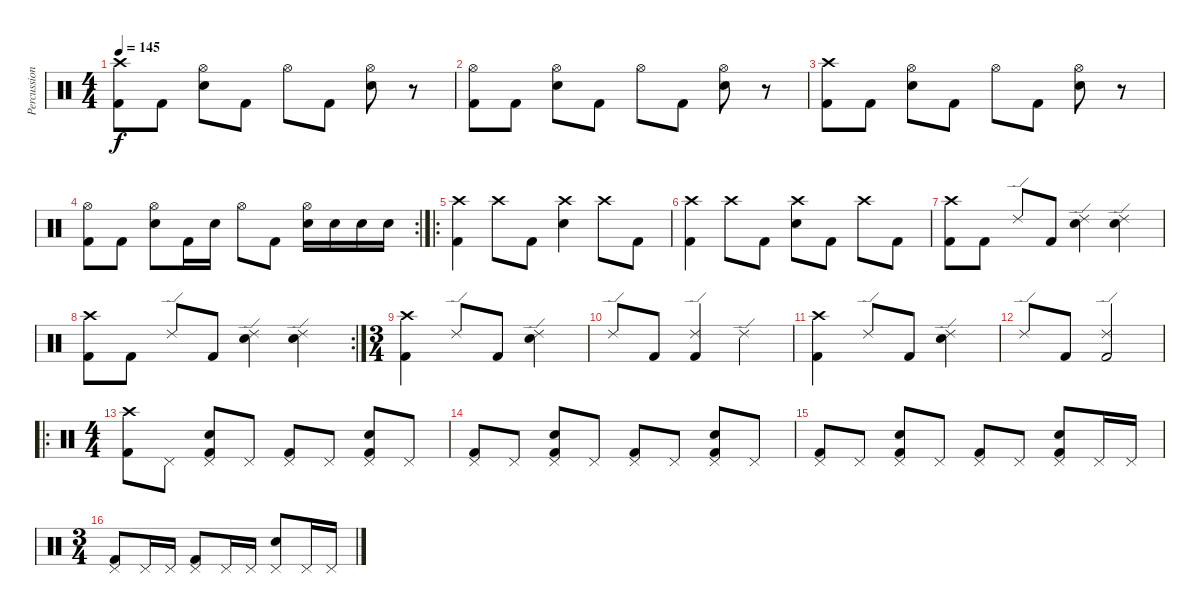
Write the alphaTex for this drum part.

\track ("Percussion" "Percussion") {instrument percussion}
\staff {score}
\articulation defaults
\ts (4 4)
\tempo 145
\clef neutral
\ks c
("Crash high (hit)" "Kick (hit) 2").8{dy f} "Kick (hit) 2".8 ("Electric Snare (hit)" "Hi-Hat (open)").8 "Kick (hit) 2".8 "Hi-Hat (open)".8 "Kick (hit) 2".8 ("Hi-Hat (open)" "Electric Snare (hit)").8 r.8 |
("Hi-Hat (open)" "Kick (hit) 2").8 "Kick (hit) 2".8 ("Hi-Hat (open)" "Electric Snare (hit)").8 "Kick (hit) 2".8 "Hi-Hat (open)".8 "Kick (hit) 2".8 ("Hi-Hat (open)" "Electric Snare (hit)").8 r.8 |
("Crash high (hit)" "Kick (hit) 2").8 "Kick (hit) 2".8 ("Electric Snare (hit)" "Hi-Hat (open)").8 "Kick (hit) 2".8 "Hi-Hat (open)".8 "Kick (hit) 2".8 ("Hi-Hat (open)" "Electric Snare (hit)").8 r.8 |
\rc 2
("Hi-Hat (open)" "Kick (hit) 2").8 "Kick (hit) 2".8 ("Hi-Hat (open)" "Electric Snare (hit)").8 "Kick (hit) 2".16 "Electric Snare (hit)".16 "Hi-Hat (open)".8 "Kick (hit) 2".8 ("Hi-Hat (open)" "Electric Snare (hit)").16 "Electric Snare (hit)".16 "Electric Snare (hit)".16 "Electric Snare (hit)".16 |
\ro
("Crash high (hit)" "Kick (hit) 2").4 "Crash high (hit)".8 "Kick (hit) 2".8 ("Crash high (hit)" "Electric Snare (hit)").4 "Crash high (hit)".8 "Kick (hit) 2".8 |
("Crash high (hit)" "Kick (hit) 2").4 "Crash high (hit)".8 "Kick (hit) 2".8 ("Crash high (hit)" "Electric Snare (hit)").8 "Kick (hit) 2".8 "Crash high (hit)".8 "Kick (hit) 2".8 |
("Crash high (hit)" "Kick (hit) 2").8 "Kick (hit) 2".8 "Ride (edge) 2".8 "Kick (hit) 2".8 ("Ride (edge) 2" "Electric Snare (hit)").4 ("Ride (edge) 2" "Electric Snare (hit)").4 |
\rc 2
("Crash high (hit)" "Kick (hit) 2").8 "Kick (hit) 2".8 "Ride (edge) 2".8 "Kick (hit) 2".8 ("Ride (edge) 2" "Electric Snare (hit)").4 ("Ride (edge) 2" "Electric Snare (hit)").4 |
\ts (3 4)
("Crash high (hit)" "Kick (hit) 2").4 "Ride (edge) 2".8 "Kick (hit) 2".8 ("Ride (edge) 2" "Electric Snare (hit)").4 |
"Ride (edge) 2".8 "Kick (hit) 2".8 ("Ride (edge) 2" "Kick (hit) 2").4 "Ride (edge) 2".4 |
("Crash high (hit)" "Kick (hit) 2").4 "Ride (edge) 2".8 "Kick (hit) 2".8 ("Ride (edge) 2" "Electric Snare (hit)").4 |
"Ride (edge) 2".8 "Kick (hit) 2".8 ("Ride (edge) 2" "Kick (hit) 2").2 |
\ro
\ts (4 4)
("Crash high (hit)" "Kick (hit) 2").8 "Pedal Hi-Hat (hit)".8 ("Pedal Hi-Hat (hit)" "Kick (hit) 2" "Electric Snare (hit)").8 "Pedal Hi-Hat (hit)".8 ("Pedal Hi-Hat (hit)" "Kick (hit) 2").8 "Pedal Hi-Hat (hit)".8 ("Pedal Hi-Hat (hit)" "Kick (hit) 2" "Electric Snare (hit)").8 "Pedal Hi-Hat (hit)".8 |
("Pedal Hi-Hat (hit)" "Kick (hit) 2").8 "Pedal Hi-Hat (hit)".8 ("Pedal Hi-Hat (hit)" "Kick (hit) 2" "Electric Snare (hit)").8 "Pedal Hi-Hat (hit)".8 ("Pedal Hi-Hat (hit)" "Kick (hit) 2").8 "Pedal Hi-Hat (hit)".8 ("Pedal Hi-Hat (hit)" "Kick (hit) 2" "Electric Snare (hit)").8 "Pedal Hi-Hat (hit)".8 |
("Pedal Hi-Hat (hit)" "Kick (hit) 2").8 "Pedal Hi-Hat (hit)".8 ("Pedal Hi-Hat (hit)" "Kick (hit) 2" "Electric Snare (hit)").8 "Pedal Hi-Hat (hit)".8 ("Pedal Hi-Hat (hit)" "Kick (hit) 2").8 "Pedal Hi-Hat (hit)".8 ("Pedal Hi-Hat (hit)" "Kick (hit) 2" "Electric Snare (hit)").8 "Pedal Hi-Hat (hit)".16 "Pedal Hi-Hat (hit)".16 |
\ts (3 4)
("Pedal Hi-Hat (hit)" "Kick (hit) 2").8 "Pedal Hi-Hat (hit)".16 "Pedal Hi-Hat (hit)".16 ("Pedal Hi-Hat (hit)" "Kick (hit) 2").8 "Pedal Hi-Hat (hit)".16 "Pedal Hi-Hat (hit)".16 ("Pedal Hi-Hat (hit)" "Electric Snare (hit)").8 "Pedal Hi-Hat (hit)".16 "Pedal Hi-Hat (hit)".16
